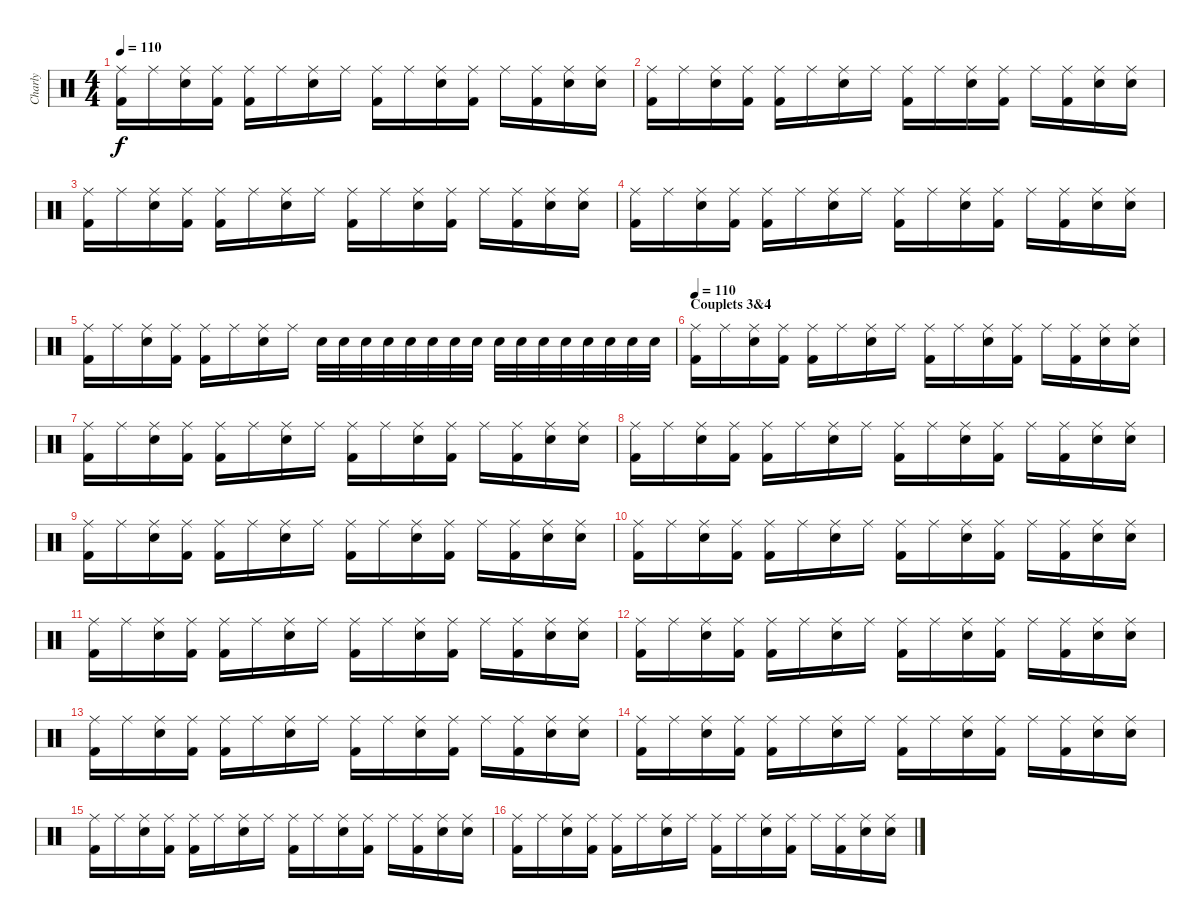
\track ("Charly" "Charly") {instrument percussion}
\staff {score}
\articulation defaults
\ts (4 4)
\tempo 110
\clef neutral
\ks c
("Ride (middle)" "Kick (hit) 2").16{dy f} "Ride (middle)".16 ("Ride (middle)" "Electric Snare (hit)").16 ("Ride (middle)" "Kick (hit) 2").16 ("Ride (middle)" "Kick (hit) 2").16 "Ride (middle)".16 ("Ride (middle)" "Electric Snare (hit)").16 "Ride (middle)".16 ("Ride (middle)" "Kick (hit) 2").16 "Ride (middle)".16 ("Ride (middle)" "Electric Snare (hit)").16 ("Ride (middle)" "Kick (hit) 2").16 "Ride (middle)".16 ("Ride (middle)" "Kick (hit) 2").16 ("Ride (middle)" "Electric Snare (hit)").16 ("Ride (middle)" "Electric Snare (hit)").16 |
("Ride (middle)" "Kick (hit) 2").16 "Ride (middle)".16 ("Ride (middle)" "Electric Snare (hit)").16 ("Ride (middle)" "Kick (hit) 2").16 ("Ride (middle)" "Kick (hit) 2").16 "Ride (middle)".16 ("Ride (middle)" "Electric Snare (hit)").16 "Ride (middle)".16 ("Ride (middle)" "Kick (hit) 2").16 "Ride (middle)".16 ("Ride (middle)" "Electric Snare (hit)").16 ("Ride (middle)" "Kick (hit) 2").16 "Ride (middle)".16 ("Ride (middle)" "Kick (hit) 2").16 ("Ride (middle)" "Electric Snare (hit)").16 ("Ride (middle)" "Electric Snare (hit)").16 |
("Ride (middle)" "Kick (hit) 2").16 "Ride (middle)".16 ("Ride (middle)" "Electric Snare (hit)").16 ("Ride (middle)" "Kick (hit) 2").16 ("Ride (middle)" "Kick (hit) 2").16 "Ride (middle)".16 ("Ride (middle)" "Electric Snare (hit)").16 "Ride (middle)".16 ("Ride (middle)" "Kick (hit) 2").16 "Ride (middle)".16 ("Ride (middle)" "Electric Snare (hit)").16 ("Ride (middle)" "Kick (hit) 2").16 "Ride (middle)".16 ("Ride (middle)" "Kick (hit) 2").16 ("Ride (middle)" "Electric Snare (hit)").16 ("Ride (middle)" "Electric Snare (hit)").16 |
("Ride (middle)" "Kick (hit) 2").16 "Ride (middle)".16 ("Ride (middle)" "Electric Snare (hit)").16 ("Ride (middle)" "Kick (hit) 2").16 ("Ride (middle)" "Kick (hit) 2").16 "Ride (middle)".16 ("Ride (middle)" "Electric Snare (hit)").16 "Ride (middle)".16 ("Ride (middle)" "Kick (hit) 2").16 "Ride (middle)".16 ("Ride (middle)" "Electric Snare (hit)").16 ("Ride (middle)" "Kick (hit) 2").16 "Ride (middle)".16 ("Ride (middle)" "Kick (hit) 2").16 ("Ride (middle)" "Electric Snare (hit)").16 ("Ride (middle)" "Electric Snare (hit)").16 |
("Ride (middle)" "Kick (hit) 2").16 "Ride (middle)".16 ("Ride (middle)" "Electric Snare (hit)").16 ("Ride (middle)" "Kick (hit) 2").16 ("Ride (middle)" "Kick (hit) 2").16 "Ride (middle)".16 ("Ride (middle)" "Electric Snare (hit)").16 "Ride (middle)".16 "Electric Snare (hit)".32 "Electric Snare (hit)".32 "Electric Snare (hit)".32 "Electric Snare (hit)".32 "Electric Snare (hit)".32 "Electric Snare (hit)".32 "Electric Snare (hit)".32 "Electric Snare (hit)".32 "Electric Snare (hit)".32 "Electric Snare (hit)".32 "Electric Snare (hit)".32 "Electric Snare (hit)".32 "Electric Snare (hit)".32 "Electric Snare (hit)".32 "Electric Snare (hit)".32 "Electric Snare (hit)".32 |
\section ("" "Couplets 3&4")
\tempo 110
("Ride (middle)" "Kick (hit) 2").16 "Ride (middle)".16 ("Ride (middle)" "Electric Snare (hit)").16 ("Ride (middle)" "Kick (hit) 2").16 ("Ride (middle)" "Kick (hit) 2").16 "Ride (middle)".16 ("Ride (middle)" "Electric Snare (hit)").16 "Ride (middle)".16 ("Ride (middle)" "Kick (hit) 2").16 "Ride (middle)".16 ("Ride (middle)" "Electric Snare (hit)").16 ("Ride (middle)" "Kick (hit) 2").16 "Ride (middle)".16 ("Ride (middle)" "Kick (hit) 2").16 ("Ride (middle)" "Electric Snare (hit)").16 ("Ride (middle)" "Electric Snare (hit)").16 |
("Ride (middle)" "Kick (hit) 2").16 "Ride (middle)".16 ("Ride (middle)" "Electric Snare (hit)").16 ("Ride (middle)" "Kick (hit) 2").16 ("Ride (middle)" "Kick (hit) 2").16 "Ride (middle)".16 ("Ride (middle)" "Electric Snare (hit)").16 "Ride (middle)".16 ("Ride (middle)" "Kick (hit) 2").16 "Ride (middle)".16 ("Ride (middle)" "Electric Snare (hit)").16 ("Ride (middle)" "Kick (hit) 2").16 "Ride (middle)".16 ("Ride (middle)" "Kick (hit) 2").16 ("Ride (middle)" "Electric Snare (hit)").16 ("Ride (middle)" "Electric Snare (hit)").16 |
("Ride (middle)" "Kick (hit) 2").16 "Ride (middle)".16 ("Ride (middle)" "Electric Snare (hit)").16 ("Ride (middle)" "Kick (hit) 2").16 ("Ride (middle)" "Kick (hit) 2").16 "Ride (middle)".16 ("Ride (middle)" "Electric Snare (hit)").16 "Ride (middle)".16 ("Ride (middle)" "Kick (hit) 2").16 "Ride (middle)".16 ("Ride (middle)" "Electric Snare (hit)").16 ("Ride (middle)" "Kick (hit) 2").16 "Ride (middle)".16 ("Ride (middle)" "Kick (hit) 2").16 ("Ride (middle)" "Electric Snare (hit)").16 ("Ride (middle)" "Electric Snare (hit)").16 |
("Ride (middle)" "Kick (hit) 2").16 "Ride (middle)".16 ("Ride (middle)" "Electric Snare (hit)").16 ("Ride (middle)" "Kick (hit) 2").16 ("Ride (middle)" "Kick (hit) 2").16 "Ride (middle)".16 ("Ride (middle)" "Electric Snare (hit)").16 "Ride (middle)".16 ("Ride (middle)" "Kick (hit) 2").16 "Ride (middle)".16 ("Ride (middle)" "Electric Snare (hit)").16 ("Ride (middle)" "Kick (hit) 2").16 "Ride (middle)".16 ("Ride (middle)" "Kick (hit) 2").16 ("Ride (middle)" "Electric Snare (hit)").16 ("Ride (middle)" "Electric Snare (hit)").16 |
("Ride (middle)" "Kick (hit) 2").16 "Ride (middle)".16 ("Ride (middle)" "Electric Snare (hit)").16 ("Ride (middle)" "Kick (hit) 2").16 ("Ride (middle)" "Kick (hit) 2").16 "Ride (middle)".16 ("Ride (middle)" "Electric Snare (hit)").16 "Ride (middle)".16 ("Ride (middle)" "Kick (hit) 2").16 "Ride (middle)".16 ("Ride (middle)" "Electric Snare (hit)").16 ("Ride (middle)" "Kick (hit) 2").16 "Ride (middle)".16 ("Ride (middle)" "Kick (hit) 2").16 ("Ride (middle)" "Electric Snare (hit)").16 ("Ride (middle)" "Electric Snare (hit)").16 |
("Ride (middle)" "Kick (hit) 2").16 "Ride (middle)".16 ("Ride (middle)" "Electric Snare (hit)").16 ("Ride (middle)" "Kick (hit) 2").16 ("Ride (middle)" "Kick (hit) 2").16 "Ride (middle)".16 ("Ride (middle)" "Electric Snare (hit)").16 "Ride (middle)".16 ("Ride (middle)" "Kick (hit) 2").16 "Ride (middle)".16 ("Ride (middle)" "Electric Snare (hit)").16 ("Ride (middle)" "Kick (hit) 2").16 "Ride (middle)".16 ("Ride (middle)" "Kick (hit) 2").16 ("Ride (middle)" "Electric Snare (hit)").16 ("Ride (middle)" "Electric Snare (hit)").16 |
("Ride (middle)" "Kick (hit) 2").16 "Ride (middle)".16 ("Ride (middle)" "Electric Snare (hit)").16 ("Ride (middle)" "Kick (hit) 2").16 ("Ride (middle)" "Kick (hit) 2").16 "Ride (middle)".16 ("Ride (middle)" "Electric Snare (hit)").16 "Ride (middle)".16 ("Ride (middle)" "Kick (hit) 2").16 "Ride (middle)".16 ("Ride (middle)" "Electric Snare (hit)").16 ("Ride (middle)" "Kick (hit) 2").16 "Ride (middle)".16 ("Ride (middle)" "Kick (hit) 2").16 ("Ride (middle)" "Electric Snare (hit)").16 ("Ride (middle)" "Electric Snare (hit)").16 |
("Ride (middle)" "Kick (hit) 2").16 "Ride (middle)".16 ("Ride (middle)" "Electric Snare (hit)").16 ("Ride (middle)" "Kick (hit) 2").16 ("Ride (middle)" "Kick (hit) 2").16 "Ride (middle)".16 ("Ride (middle)" "Electric Snare (hit)").16 "Ride (middle)".16 ("Ride (middle)" "Kick (hit) 2").16 "Ride (middle)".16 ("Ride (middle)" "Electric Snare (hit)").16 ("Ride (middle)" "Kick (hit) 2").16 "Ride (middle)".16 ("Ride (middle)" "Kick (hit) 2").16 ("Ride (middle)" "Electric Snare (hit)").16 ("Ride (middle)" "Electric Snare (hit)").16 |
("Ride (middle)" "Kick (hit) 2").16 "Ride (middle)".16 ("Ride (middle)" "Electric Snare (hit)").16 ("Ride (middle)" "Kick (hit) 2").16 ("Ride (middle)" "Kick (hit) 2").16 "Ride (middle)".16 ("Ride (middle)" "Electric Snare (hit)").16 "Ride (middle)".16 ("Ride (middle)" "Kick (hit) 2").16 "Ride (middle)".16 ("Ride (middle)" "Electric Snare (hit)").16 ("Ride (middle)" "Kick (hit) 2").16 "Ride (middle)".16 ("Ride (middle)" "Kick (hit) 2").16 ("Ride (middle)" "Electric Snare (hit)").16 ("Ride (middle)" "Electric Snare (hit)").16 |
("Ride (middle)" "Kick (hit) 2").16 "Ride (middle)".16 ("Ride (middle)" "Electric Snare (hit)").16 ("Ride (middle)" "Kick (hit) 2").16 ("Ride (middle)" "Kick (hit) 2").16 "Ride (middle)".16 ("Ride (middle)" "Electric Snare (hit)").16 "Ride (middle)".16 ("Ride (middle)" "Kick (hit) 2").16 "Ride (middle)".16 ("Ride (middle)" "Electric Snare (hit)").16 ("Ride (middle)" "Kick (hit) 2").16 "Ride (middle)".16 ("Ride (middle)" "Kick (hit) 2").16 ("Ride (middle)" "Electric Snare (hit)").16 ("Ride (middle)" "Electric Snare (hit)").16 |
("Ride (middle)" "Kick (hit) 2").16 "Ride (middle)".16 ("Ride (middle)" "Electric Snare (hit)").16 ("Ride (middle)" "Kick (hit) 2").16 ("Ride (middle)" "Kick (hit) 2").16 "Ride (middle)".16 ("Ride (middle)" "Electric Snare (hit)").16 "Ride (middle)".16 ("Ride (middle)" "Kick (hit) 2").16 "Ride (middle)".16 ("Ride (middle)" "Electric Snare (hit)").16 ("Ride (middle)" "Kick (hit) 2").16 "Ride (middle)".16 ("Ride (middle)" "Kick (hit) 2").16 ("Ride (middle)" "Electric Snare (hit)").16 ("Ride (middle)" "Electric Snare (hit)").16
